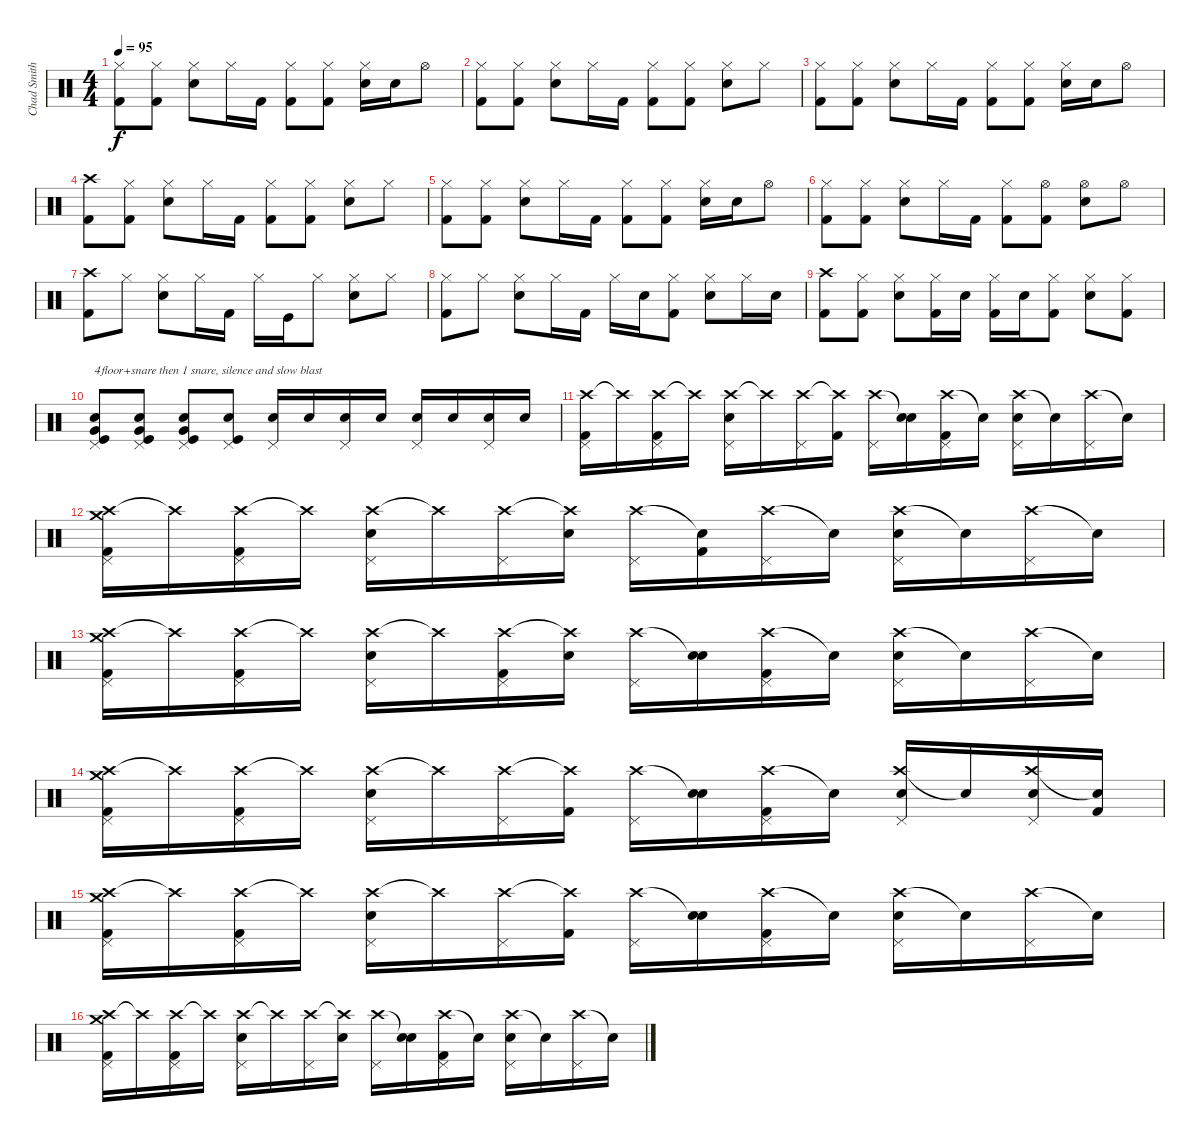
\track ("Chad Smith" "Chad Smith") {instrument percussion}
\staff {score}
\articulation defaults
\ts (4 4)
\tempo 95
\clef neutral
\ks c
("Hi-Hat (closed)" "Kick (hit) 2").8{dy f} ("Hi-Hat (closed)" "Kick (hit) 2").8 ("Hi-Hat (closed)" "Snare (hit) 2").8 "Hi-Hat (closed)".16 "Kick (hit) 2".16 ("Hi-Hat (closed)" "Kick (hit) 2").8 ("Hi-Hat (closed)" "Kick (hit) 2").8 ("Hi-Hat (closed)" "Snare (hit) 2").16 "Snare (hit) 2".16 "Hi-Hat (open)".8 |
("Hi-Hat (closed)" "Kick (hit) 2").8 ("Hi-Hat (closed)" "Kick (hit) 2").8 ("Hi-Hat (closed)" "Snare (hit) 2").8 "Hi-Hat (closed)".16 "Kick (hit) 2".16 ("Hi-Hat (closed)" "Kick (hit) 2").8 ("Hi-Hat (closed)" "Kick (hit) 2").8 ("Hi-Hat (closed)" "Snare (hit) 2").8 "Hi-Hat (closed)".8 |
("Hi-Hat (closed)" "Kick (hit) 2").8 ("Hi-Hat (closed)" "Kick (hit) 2").8 ("Hi-Hat (closed)" "Snare (hit) 2").8 "Hi-Hat (closed)".16 "Kick (hit) 2".16 ("Hi-Hat (closed)" "Kick (hit) 2").8 ("Hi-Hat (closed)" "Kick (hit) 2").8 ("Hi-Hat (closed)" "Snare (hit) 2").16 "Snare (hit) 2".16 "Hi-Hat (open)".8 |
("Crash high (hit)" "Kick (hit) 2").8 ("Hi-Hat (closed)" "Kick (hit) 2").8 ("Hi-Hat (closed)" "Snare (hit) 2").8 "Hi-Hat (closed)".16 "Kick (hit) 2".16 ("Hi-Hat (closed)" "Kick (hit) 2").8 ("Hi-Hat (closed)" "Kick (hit) 2").8 ("Hi-Hat (closed)" "Snare (hit) 2").8 "Hi-Hat (closed)".8 |
("Hi-Hat (closed)" "Kick (hit) 2").8 ("Hi-Hat (closed)" "Kick (hit) 2").8 ("Hi-Hat (closed)" "Snare (hit) 2").8 "Hi-Hat (closed)".16 "Kick (hit) 2".16 ("Hi-Hat (closed)" "Kick (hit) 2").8 ("Hi-Hat (closed)" "Kick (hit) 2").8 ("Hi-Hat (closed)" "Snare (hit) 2").16 "Snare (hit) 2".16 "Hi-Hat (open)".8 |
("Hi-Hat (closed)" "Kick (hit) 2").8 ("Hi-Hat (closed)" "Kick (hit) 2").8 ("Hi-Hat (closed)" "Snare (hit) 2").8 "Hi-Hat (closed)".16 "Kick (hit) 2".16 ("Hi-Hat (closed)" "Kick (hit) 2").8 ("Hi-Hat (open)" "Kick (hit) 2").8 ("Hi-Hat (open)" "Snare (hit) 2").8 "Hi-Hat (open)".8 |
("Crash high (hit)" "Kick (hit) 2").8 "Hi-Hat (closed)".8 ("Hi-Hat (closed)" "Snare (hit) 2").8 "Hi-Hat (closed)".16 "Kick (hit) 2".16 "Hi-Hat (closed)".16 "Kick (hit)".16 "Hi-Hat (closed)".8 ("Hi-Hat (closed)" "Snare (hit) 2").8 "Hi-Hat (closed)".8 |
("Hi-Hat (closed)" "Kick (hit) 2").8 "Hi-Hat (closed)".8 ("Hi-Hat (closed)" "Snare (hit) 2").8 "Hi-Hat (closed)".16 "Kick (hit) 2".16 "Hi-Hat (closed)".16 "Snare (hit) 2".16 ("Hi-Hat (closed)" "Kick (hit) 2").8 ("Hi-Hat (closed)" "Snare (hit) 2").8 "Hi-Hat (closed)".16 "Snare (hit) 2".16 |
("Crash high (hit)" "Kick (hit) 2").8 ("Hi-Hat (closed)" "Kick (hit) 2").8 ("Hi-Hat (closed)" "Snare (hit) 2").8 ("Hi-Hat (closed)" "Kick (hit) 2").16 "Snare (hit) 2".16 ("Hi-Hat (closed)" "Kick (hit) 2").16 "Snare (hit) 2".16 ("Hi-Hat (closed)" "Kick (hit) 2").8 ("Hi-Hat (closed)" "Snare (hit) 2").8 ("Hi-Hat (closed)" "Kick (hit) 2").8 |
("Very Low Tom (hit)" "Snare (hit) 2" "Pedal Hi-Hat (hit)" "Kick (hit)").8{txt "4floor+snare then 1 snare, silence and slow blast"} ("Very Low Tom (hit)" "Snare (hit) 2" "Pedal Hi-Hat (hit)" "Kick (hit)").8 ("Very Low Tom (hit)" "Snare (hit) 2" "Pedal Hi-Hat (hit)" "Kick (hit)").8 ("Snare (hit) 2" "Pedal Hi-Hat (hit)" "Kick (hit)").8 ("Snare (hit) 2" "Pedal Hi-Hat (hit)").16 "Snare (hit) 2".16 ("Snare (hit) 2" "Pedal Hi-Hat (hit)").16 "Snare (hit) 2".16 ("Snare (hit) 2" "Pedal Hi-Hat (hit)").16 "Snare (hit) 2".16 ("Snare (hit) 2" "Pedal Hi-Hat (hit)").16 "Snare (hit) 2".16 |
("Crash high (hit)" "Pedal Hi-Hat (hit)" "Kick (hit) 2").16 "Crash high (hit)"{t}.16 ("Crash high (hit)" "Pedal Hi-Hat (hit)" "Kick (hit) 2").16 "Crash high (hit)"{t}.16 ("Crash high (hit)" "Snare (hit) 2" "Pedal Hi-Hat (hit)").16 "Crash high (hit)"{t}.16 ("Crash high (hit)" "Pedal Hi-Hat (hit)").16 ("Crash high (hit)"{t} "Kick (hit) 2").16 ("Crash high (hit)" "Pedal Hi-Hat (hit)").16 ("Snare (hit)"{t} "Snare (hit) 2").16 ("Crash high (hit)" "Pedal Hi-Hat (hit)" "Kick (hit) 2").16 "Snare (hit)"{t}.16 ("Crash high (hit)" "Snare (hit) 2" "Pedal Hi-Hat (hit)").16 "Snare (hit)"{t}.16 ("Crash high (hit)" "Pedal Hi-Hat (hit)").16 "Snare (hit)"{t}.16 |
("Crash high (hit)" "Crash medium (hit)" "Pedal Hi-Hat (hit)" "Kick (hit) 2").16 "Crash high (hit)"{t}.16 ("Crash high (hit)" "Pedal Hi-Hat (hit)" "Kick (hit) 2").16 "Crash high (hit)"{t}.16 ("Crash high (hit)" "Snare (hit) 2" "Pedal Hi-Hat (hit)").16 "Crash high (hit)"{t}.16 ("Crash high (hit)" "Pedal Hi-Hat (hit)").16 ("Crash high (hit)"{t} "Snare (hit) 2").16 ("Crash high (hit)" "Pedal Hi-Hat (hit)").16 ("Snare (hit)"{t} "Kick (hit) 2").16 ("Crash high (hit)" "Pedal Hi-Hat (hit)").16 "Snare (hit)"{t}.16 ("Crash high (hit)" "Snare (hit) 2" "Pedal Hi-Hat (hit)").16 "Snare (hit)"{t}.16 ("Crash high (hit)" "Pedal Hi-Hat (hit)").16 "Snare (hit)"{t}.16 |
("Crash high (hit)" "Crash medium (hit)" "Pedal Hi-Hat (hit)" "Kick (hit) 2").16 "Crash high (hit)"{t}.16 ("Crash high (hit)" "Pedal Hi-Hat (hit)" "Kick (hit) 2").16 "Crash high (hit)"{t}.16 ("Crash high (hit)" "Snare (hit) 2" "Pedal Hi-Hat (hit)").16 "Crash high (hit)"{t}.16 ("Crash high (hit)" "Pedal Hi-Hat (hit)" "Kick (hit) 2").16 ("Crash high (hit)"{t} "Snare (hit) 2").16 ("Crash high (hit)" "Pedal Hi-Hat (hit)").16 ("Snare (hit)"{t} "Snare (hit) 2").16 ("Crash high (hit)" "Pedal Hi-Hat (hit)" "Kick (hit) 2").16 "Snare (hit)"{t}.16 ("Crash high (hit)" "Snare (hit) 2" "Pedal Hi-Hat (hit)").16 "Snare (hit)"{t}.16 ("Crash high (hit)" "Pedal Hi-Hat (hit)").16 "Snare (hit)"{t}.16 |
("Crash high (hit)" "Crash medium (hit)" "Pedal Hi-Hat (hit)" "Kick (hit) 2").16 "Crash high (hit)"{t}.16 ("Crash high (hit)" "Pedal Hi-Hat (hit)" "Kick (hit) 2").16 "Crash high (hit)"{t}.16 ("Crash high (hit)" "Snare (hit) 2" "Pedal Hi-Hat (hit)").16 "Crash high (hit)"{t}.16 ("Crash high (hit)" "Pedal Hi-Hat (hit)").16 ("Crash high (hit)"{t} "Kick (hit) 2").16 ("Crash high (hit)" "Pedal Hi-Hat (hit)").16 ("Snare (hit)"{t} "Snare (hit) 2").16 ("Crash high (hit)" "Pedal Hi-Hat (hit)" "Kick (hit) 2").16 "Snare (hit)"{t}.16 ("Crash high (hit)" "Snare (hit) 2" "Pedal Hi-Hat (hit)").16 "Snare (hit)"{t}.16 ("Crash high (hit)" "Snare (hit) 2" "Pedal Hi-Hat (hit)").16 ("Snare (hit)"{t} "Kick (hit) 2").16 |
("Crash high (hit)" "Crash medium (hit)" "Pedal Hi-Hat (hit)" "Kick (hit) 2").16 "Crash high (hit)"{t}.16 ("Crash high (hit)" "Pedal Hi-Hat (hit)" "Kick (hit) 2").16 "Crash high (hit)"{t}.16 ("Crash high (hit)" "Snare (hit) 2" "Pedal Hi-Hat (hit)").16 "Crash high (hit)"{t}.16 ("Crash high (hit)" "Pedal Hi-Hat (hit)").16 ("Crash high (hit)"{t} "Kick (hit) 2").16 ("Crash high (hit)" "Pedal Hi-Hat (hit)").16 ("Snare (hit)"{t} "Snare (hit) 2").16 ("Crash high (hit)" "Pedal Hi-Hat (hit)" "Kick (hit) 2").16 "Snare (hit)"{t}.16 ("Crash high (hit)" "Snare (hit) 2" "Pedal Hi-Hat (hit)").16 "Snare (hit)"{t}.16 ("Crash high (hit)" "Pedal Hi-Hat (hit)").16 "Snare (hit)"{t}.16 |
("Crash high (hit)" "Crash medium (hit)" "Pedal Hi-Hat (hit)" "Kick (hit) 2").16 "Crash high (hit)"{t}.16 ("Crash high (hit)" "Pedal Hi-Hat (hit)" "Kick (hit) 2").16 "Crash high (hit)"{t}.16 ("Crash high (hit)" "Snare (hit) 2" "Pedal Hi-Hat (hit)").16 "Crash high (hit)"{t}.16 ("Crash high (hit)" "Pedal Hi-Hat (hit)").16 ("Crash high (hit)"{t} "Snare (hit) 2").16 ("Crash high (hit)" "Pedal Hi-Hat (hit)").16 ("Snare (hit)"{t} "Snare (hit) 2").16 ("Crash high (hit)" "Pedal Hi-Hat (hit)" "Kick (hit) 2").16 "Snare (hit)"{t}.16 ("Crash high (hit)" "Snare (hit) 2" "Pedal Hi-Hat (hit)").16 "Snare (hit)"{t}.16 ("Crash high (hit)" "Pedal Hi-Hat (hit)").16 "Snare (hit)"{t}.16
